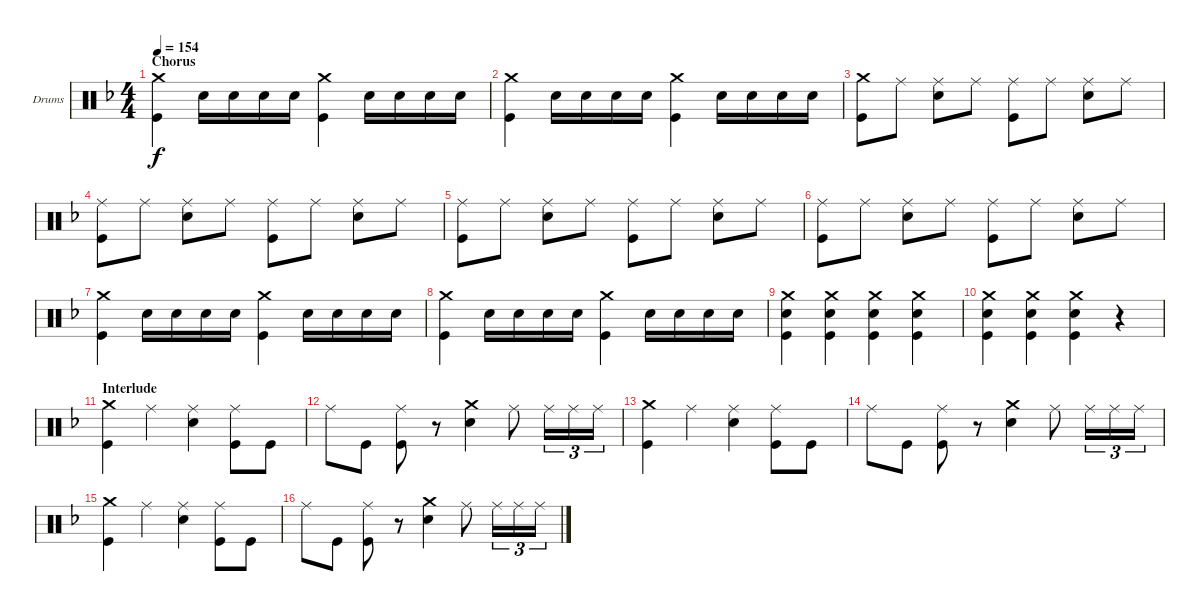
\defaultSystemsLayout 4
\bracketExtendMode groupsimilarinstruments
\firstSystemTrackNameOrientation horizontal
\otherSystemsTrackNameOrientation horizontal
\track ("Drumkit" "Drums") {instrument percussion}
\staff {score}
\articulation defaults
\ts (4 4)
\section ("" "Chorus")
\tempo 154
\clef neutral
\ks f
("Crash medium (hit)" "Kick (hit)").4{dy f} "Snare (hit) 2".16 "Snare (hit) 2".16 "Snare (hit) 2".16 "Snare (hit) 2".16 ("Crash medium (hit)" "Kick (hit)").4 "Snare (hit) 2".16 "Snare (hit) 2".16 "Snare (hit) 2".16 "Snare (hit) 2".16 |
("Crash medium (hit)" "Kick (hit)").4 "Snare (hit) 2".16 "Snare (hit) 2".16 "Snare (hit) 2".16 "Snare (hit) 2".16 ("Crash medium (hit)" "Kick (hit)").4 "Snare (hit) 2".16 "Snare (hit) 2".16 "Snare (hit) 2".16 "Snare (hit) 2".16 |
("Crash medium (hit)" "Kick (hit)").8 "Ride (middle)".8 ("Ride (middle)" "Snare (hit) 2").8 "Ride (middle)".8 ("Ride (middle)" "Kick (hit)").8 "Ride (middle)".8 ("Ride (middle)" "Snare (hit) 2").8 "Ride (middle)".8 |
("Kick (hit)" "Ride (middle)").8 "Ride (middle)".8 ("Ride (middle)" "Snare (hit) 2").8 "Ride (middle)".8 ("Ride (middle)" "Kick (hit)").8 "Ride (middle)".8 ("Ride (middle)" "Snare (hit) 2").8 "Ride (middle)".8 |
("Kick (hit)" "Ride (middle)").8 "Ride (middle)".8 ("Ride (middle)" "Snare (hit) 2").8 "Ride (middle)".8 ("Ride (middle)" "Kick (hit)").8 "Ride (middle)".8 ("Ride (middle)" "Snare (hit) 2").8 "Ride (middle)".8 |
("Kick (hit)" "Ride (middle)").8 "Ride (middle)".8 ("Ride (middle)" "Snare (hit) 2").8 "Ride (middle)".8 ("Ride (middle)" "Kick (hit)").8 "Ride (middle)".8 ("Ride (middle)" "Snare (hit) 2").8 "Ride (middle)".8 |
("Crash medium (hit)" "Kick (hit)").4 "Snare (hit) 2".16 "Snare (hit) 2".16 "Snare (hit) 2".16 "Snare (hit) 2".16 ("Crash medium (hit)" "Kick (hit)").4 "Snare (hit) 2".16 "Snare (hit) 2".16 "Snare (hit) 2".16 "Snare (hit) 2".16 |
("Crash medium (hit)" "Kick (hit)").4 "Snare (hit) 2".16 "Snare (hit) 2".16 "Snare (hit) 2".16 "Snare (hit) 2".16 ("Crash medium (hit)" "Kick (hit)").4 "Snare (hit) 2".16 "Snare (hit) 2".16 "Snare (hit) 2".16 "Snare (hit) 2".16 |
("Crash medium (hit)" "Snare (hit) 2" "Kick (hit)").4 ("Crash medium (hit)" "Snare (hit) 2" "Kick (hit)").4 ("Crash medium (hit)" "Snare (hit) 2" "Kick (hit)").4 ("Crash medium (hit)" "Snare (hit) 2" "Kick (hit)").4 |
("Crash medium (hit)" "Snare (hit) 2" "Kick (hit)").4 ("Crash medium (hit)" "Snare (hit) 2" "Kick (hit)").4 ("Crash medium (hit)" "Snare (hit) 2" "Kick (hit)").4 r.4 |
\section ("" "Interlude")
("Crash medium (hit)" "Kick (hit)").4 "Ride (middle)".4 ("Ride (middle)" "Snare (hit) 2").4 ("Ride (middle)" "Kick (hit)").8 "Kick (hit)".8 |
"Ride (middle)".8 "Kick (hit)".8 ("Kick (hit)" "Ride (middle)").8 r.8 ("Crash medium (hit)" "Snare (hit) 2").4 "Ride (middle)".8 "Ride (middle)".16{tu (3 2)} "Ride (middle)".16{tu (3 2)} "Ride (middle)".16{tu (3 2)} |
("Crash medium (hit)" "Kick (hit)").4 "Ride (middle)".4 ("Ride (middle)" "Snare (hit) 2").4 ("Ride (middle)" "Kick (hit)").8 "Kick (hit)".8 |
"Ride (middle)".8 "Kick (hit)".8 ("Kick (hit)" "Ride (middle)").8 r.8 ("Crash medium (hit)" "Snare (hit) 2").4 "Ride (middle)".8 "Ride (middle)".16{tu (3 2)} "Ride (middle)".16{tu (3 2)} "Ride (middle)".16{tu (3 2)} |
("Crash medium (hit)" "Kick (hit)").4 "Ride (middle)".4 ("Ride (middle)" "Snare (hit) 2").4 ("Ride (middle)" "Kick (hit)").8 "Kick (hit)".8 |
"Ride (middle)".8 "Kick (hit)".8 ("Kick (hit)" "Ride (middle)").8 r.8 ("Crash medium (hit)" "Snare (hit) 2").4 "Ride (middle)".8 "Ride (middle)".16{tu (3 2)} "Ride (middle)".16{tu (3 2)} "Ride (middle)".16{tu (3 2)}
